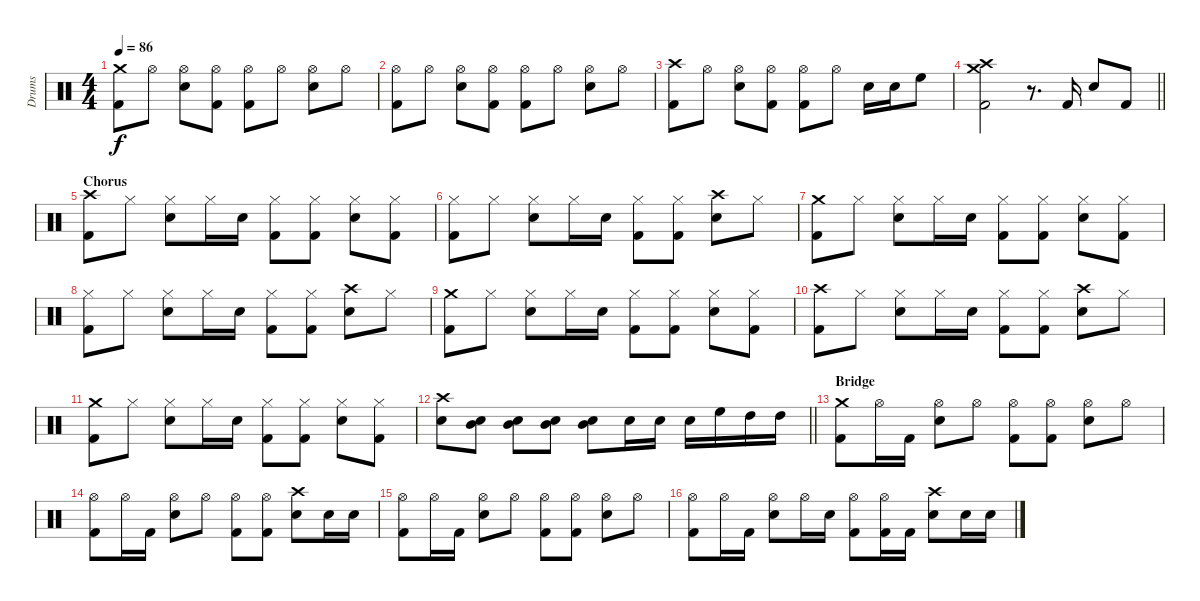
\track ("Drums" "Drums") {instrument percussion}
\staff {score}
\articulation defaults
\ts (4 4)
\tempo 86
\clef neutral
\ks c
("Crash medium (hit)" "Kick (hit) 2").8{dy f} "Hi-Hat (open)".8 ("Hi-Hat (open)" "Snare (hit) 2").8 ("Hi-Hat (open)" "Kick (hit) 2").8 ("Hi-Hat (open)" "Kick (hit) 2").8 "Hi-Hat (open)".8 ("Hi-Hat (open)" "Snare (hit) 2").8 "Hi-Hat (open)".8 |
("Hi-Hat (open)" "Kick (hit) 2").8 "Hi-Hat (open)".8 ("Hi-Hat (open)" "Snare (hit) 2").8 ("Hi-Hat (open)" "Kick (hit) 2").8 ("Hi-Hat (open)" "Kick (hit) 2").8 "Hi-Hat (open)".8 ("Hi-Hat (open)" "Snare (hit) 2").8 "Hi-Hat (open)".8 |
("Crash high (hit)" "Kick (hit) 2").8 "Hi-Hat (open)".8 ("Hi-Hat (open)" "Snare (hit) 2").8 ("Hi-Hat (open)" "Kick (hit) 2").8 ("Hi-Hat (open)" "Kick (hit) 2").8 "Hi-Hat (open)".8 "Snare (hit) 2".16 "Snare (hit) 2".16 "High Floor Tom (hit)".8 |
\barLineRight lightlight
("Crash high (hit)" "Crash medium (hit)" "Kick (hit) 2").2 r.8{d} "Kick (hit) 2".16 "Snare (hit) 2".8 "Kick (hit) 2".8 |
\section ("" "Chorus")
("Crash high (hit)" "Kick (hit) 2").8 "Hi-Hat (closed)".8 ("Hi-Hat (closed)" "Snare (hit) 2").8 "Hi-Hat (closed)".16 "Snare (hit) 2".16 ("Hi-Hat (closed)" "Kick (hit) 2").8 ("Hi-Hat (closed)" "Kick (hit) 2").8 ("Hi-Hat (closed)" "Snare (hit) 2").8 ("Hi-Hat (closed)" "Kick (hit) 2").8 |
("Hi-Hat (closed)" "Kick (hit) 2").8 "Hi-Hat (closed)".8 ("Hi-Hat (closed)" "Snare (hit) 2").8 "Hi-Hat (closed)".16 "Snare (hit) 2".16 ("Hi-Hat (closed)" "Kick (hit) 2").8 ("Hi-Hat (closed)" "Kick (hit) 2").8 ("Crash high (hit)" "Snare (hit) 2").8 "Hi-Hat (closed)".8 |
("Crash medium (hit)" "Kick (hit) 2").8 "Hi-Hat (closed)".8 ("Hi-Hat (closed)" "Snare (hit) 2").8 "Hi-Hat (closed)".16 "Snare (hit) 2".16 ("Hi-Hat (closed)" "Kick (hit) 2").8 ("Hi-Hat (closed)" "Kick (hit) 2").8 ("Hi-Hat (closed)" "Snare (hit) 2").8 ("Hi-Hat (closed)" "Kick (hit) 2").8 |
("Hi-Hat (closed)" "Kick (hit) 2").8 "Hi-Hat (closed)".8 ("Hi-Hat (closed)" "Snare (hit) 2").8 "Hi-Hat (closed)".16 "Snare (hit) 2".16 ("Hi-Hat (closed)" "Kick (hit) 2").8 ("Hi-Hat (closed)" "Kick (hit) 2").8 ("Crash high (hit)" "Snare (hit) 2").8 "Hi-Hat (closed)".8 |
("Crash medium (hit)" "Kick (hit) 2").8 "Hi-Hat (closed)".8 ("Hi-Hat (closed)" "Snare (hit) 2").8 "Hi-Hat (closed)".16 "Snare (hit) 2".16 ("Hi-Hat (closed)" "Kick (hit) 2").8 ("Hi-Hat (closed)" "Kick (hit) 2").8 ("Hi-Hat (closed)" "Snare (hit) 2").8 ("Hi-Hat (closed)" "Kick (hit) 2").8 |
("Crash high (hit)" "Kick (hit) 2").8 "Hi-Hat (closed)".8 ("Hi-Hat (closed)" "Snare (hit) 2").8 "Hi-Hat (closed)".16 "Snare (hit) 2".16 ("Hi-Hat (closed)" "Kick (hit) 2").8 ("Hi-Hat (closed)" "Kick (hit) 2").8 ("Crash high (hit)" "Snare (hit) 2").8 "Hi-Hat (closed)".8 |
("Crash medium (hit)" "Kick (hit) 2").8 "Hi-Hat (closed)".8 ("Hi-Hat (closed)" "Snare (hit) 2").8 "Hi-Hat (closed)".16 "Snare (hit) 2".16 ("Hi-Hat (closed)" "Kick (hit) 2").8 ("Hi-Hat (closed)" "Kick (hit) 2").8 ("Hi-Hat (closed)" "Snare (hit) 2").8 ("Hi-Hat (closed)" "Kick (hit) 2").8 |
\barLineRight lightlight
("Crash high (hit)" "Snare (hit) 2").8 ("Snare (hit) 2" "Mid Tom (hit)").8 ("Snare (hit) 2" "Mid Tom (hit)").8 ("Snare (hit) 2" "Mid Tom (hit)").8 ("Snare (hit) 2" "Mid Tom (hit)").8 "Snare (hit) 2".16 "Snare (hit) 2".16 "Snare (hit) 2".16 "High Floor Tom (hit)".16 "High Tom (hit)".16 "High Tom (hit)".16 |
\section ("" "Bridge")
("Crash medium (hit)" "Kick (hit) 2").8 "Hi-Hat (open)".16 "Kick (hit) 2".16 ("Hi-Hat (open)" "Snare (hit) 2").8 "Hi-Hat (open)".8 ("Hi-Hat (open)" "Kick (hit) 2").8 ("Hi-Hat (open)" "Kick (hit) 2").8 ("Hi-Hat (open)" "Snare (hit) 2").8 "Hi-Hat (open)".8 |
("Hi-Hat (open)" "Kick (hit) 2").8 "Hi-Hat (open)".16 "Kick (hit) 2".16 ("Hi-Hat (open)" "Snare (hit) 2").8 "Hi-Hat (open)".8 ("Hi-Hat (open)" "Kick (hit) 2").8 ("Hi-Hat (open)" "Kick (hit) 2").8 ("Crash high (hit)" "Snare (hit) 2").8 "Snare (hit) 2".16 "Snare (hit) 2".16 |
("Hi-Hat (open)" "Kick (hit) 2").8 "Hi-Hat (open)".16 "Kick (hit) 2".16 ("Hi-Hat (open)" "Snare (hit) 2").8 "Hi-Hat (open)".8 ("Hi-Hat (open)" "Kick (hit) 2").8 ("Hi-Hat (open)" "Kick (hit) 2").8 ("Hi-Hat (open)" "Snare (hit) 2").8 "Hi-Hat (open)".8 |
("Hi-Hat (open)" "Kick (hit) 2").8 "Hi-Hat (open)".16 "Kick (hit) 2".16 ("Hi-Hat (open)" "Snare (hit) 2").8 "Hi-Hat (open)".16 "Snare (hit) 2".16 ("Hi-Hat (open)" "Kick (hit) 2").8 ("Hi-Hat (open)" "Kick (hit) 2").16 "Kick (hit) 2".16 ("Crash high (hit)" "Snare (hit) 2").8 "Snare (hit) 2".16 "Snare (hit) 2".16
